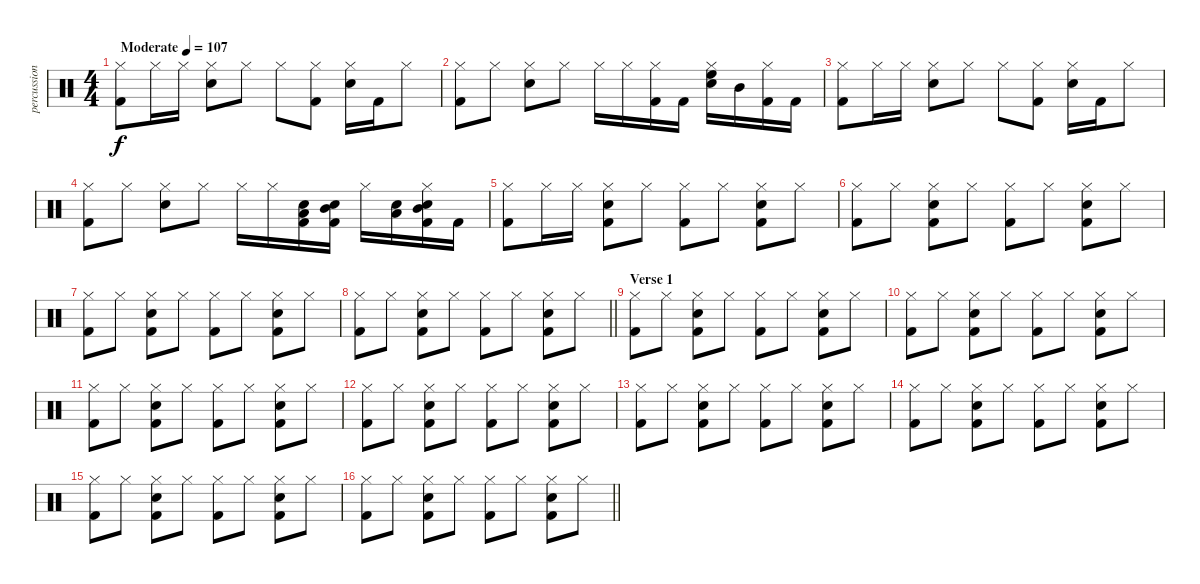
\track ("percussion" "percussion") {instrument percussion}
\staff {score}
\articulation defaults
\ts (4 4)
\tempo (107 "Moderate")
\clef neutral
\ks c
("Hi-Hat (closed)" "Kick (hit) 2").8{dy f} "Hi-Hat (closed)".16 "Hi-Hat (closed)".16 ("Snare (hit) 2" "Hi-Hat (closed)").8 "Hi-Hat (closed)".8 "Hi-Hat (closed)".8 ("Hi-Hat (closed)" "Kick (hit) 2").8 ("Snare (hit) 2" "Hi-Hat (closed)").16 "Kick (hit) 2".16 "Hi-Hat (closed)".8 |
("Hi-Hat (closed)" "Kick (hit) 2").8 "Hi-Hat (closed)".8 ("Snare (hit) 2" "Hi-Hat (closed)").8 "Hi-Hat (closed)".8 "Hi-Hat (closed)".16 "Hi-Hat (closed)".16 ("Hi-Hat (closed)" "Kick (hit) 2").16 "Kick (hit) 2".16 ("High Floor Tom (hit)" "Snare (hit) 2" "Hi-Hat (closed)").16 "Mid Tom (hit)".16 ("Hi-Hat (closed)" "Kick (hit) 2").16 "Kick (hit) 2".16 |
("Hi-Hat (closed)" "Kick (hit) 2").8 "Hi-Hat (closed)".16 "Hi-Hat (closed)".16 ("Snare (hit) 2" "Hi-Hat (closed)").8 "Hi-Hat (closed)".8 "Hi-Hat (closed)".8 ("Hi-Hat (closed)" "Kick (hit) 2").8 ("Snare (hit) 2" "Hi-Hat (closed)").16 "Kick (hit) 2".16 "Hi-Hat (closed)".8 |
("Hi-Hat (closed)" "Kick (hit) 2").8 "Hi-Hat (closed)".8 ("Snare (hit) 2" "Hi-Hat (closed)").8 "Hi-Hat (closed)".8 "Hi-Hat (closed)".16 "Hi-Hat (closed)".16 ("Low Tom (hit)" "Snare (hit) 2" "Kick (hit) 2").16 ("Mid Tom (hit)" "Snare (hit) 2" "Kick (hit) 2").16 "Hi-Hat (closed)".16 ("Low Tom (hit)" "Snare (hit) 2").16 ("Mid Tom (hit)" "Snare (hit) 2" "Hi-Hat (closed)" "Kick (hit) 2").16 "Kick (hit) 2".16 |
("Hi-Hat (closed)" "Kick (hit) 2").8 "Hi-Hat (closed)".16 "Hi-Hat (closed)".16 ("Snare (hit) 2" "Hi-Hat (closed)" "Kick (hit) 2").8 "Hi-Hat (closed)".8 ("Hi-Hat (closed)" "Kick (hit) 2").8 "Hi-Hat (closed)".8 ("Snare (hit) 2" "Hi-Hat (closed)" "Kick (hit) 2").8 "Hi-Hat (closed)".8 |
("Hi-Hat (closed)" "Kick (hit) 2").8 "Hi-Hat (closed)".8 ("Snare (hit) 2" "Hi-Hat (closed)" "Kick (hit) 2").8 "Hi-Hat (closed)".8 ("Hi-Hat (closed)" "Kick (hit) 2").8 "Hi-Hat (closed)".8 ("Snare (hit) 2" "Hi-Hat (closed)" "Kick (hit) 2").8 "Hi-Hat (closed)".8 |
("Hi-Hat (closed)" "Kick (hit) 2").8 "Hi-Hat (closed)".8 ("Snare (hit) 2" "Hi-Hat (closed)" "Kick (hit) 2").8 "Hi-Hat (closed)".8 ("Hi-Hat (closed)" "Kick (hit) 2").8 "Hi-Hat (closed)".8 ("Snare (hit) 2" "Hi-Hat (closed)" "Kick (hit) 2").8 "Hi-Hat (closed)".8 |
\barLineRight lightlight
("Hi-Hat (closed)" "Kick (hit) 2").8 "Hi-Hat (closed)".8 ("Snare (hit) 2" "Hi-Hat (closed)" "Kick (hit) 2").8 "Hi-Hat (closed)".8 ("Hi-Hat (closed)" "Kick (hit) 2").8 "Hi-Hat (closed)".8 ("Snare (hit) 2" "Hi-Hat (closed)" "Kick (hit) 2").8 "Hi-Hat (closed)".8 |
\section ("" "Verse 1")
("Hi-Hat (closed)" "Kick (hit) 2").8 "Hi-Hat (closed)".8 ("Snare (hit) 2" "Hi-Hat (closed)" "Kick (hit) 2").8 "Hi-Hat (closed)".8 ("Hi-Hat (closed)" "Kick (hit) 2").8 "Hi-Hat (closed)".8 ("Snare (hit) 2" "Hi-Hat (closed)" "Kick (hit) 2").8 "Hi-Hat (closed)".8 |
("Hi-Hat (closed)" "Kick (hit) 2").8 "Hi-Hat (closed)".8 ("Snare (hit) 2" "Hi-Hat (closed)" "Kick (hit) 2").8 "Hi-Hat (closed)".8 ("Hi-Hat (closed)" "Kick (hit) 2").8 "Hi-Hat (closed)".8 ("Snare (hit) 2" "Hi-Hat (closed)" "Kick (hit) 2").8 "Hi-Hat (closed)".8 |
("Hi-Hat (closed)" "Kick (hit) 2").8 "Hi-Hat (closed)".8 ("Snare (hit) 2" "Hi-Hat (closed)" "Kick (hit) 2").8 "Hi-Hat (closed)".8 ("Hi-Hat (closed)" "Kick (hit) 2").8 "Hi-Hat (closed)".8 ("Snare (hit) 2" "Hi-Hat (closed)" "Kick (hit) 2").8 "Hi-Hat (closed)".8 |
("Hi-Hat (closed)" "Kick (hit) 2").8 "Hi-Hat (closed)".8 ("Snare (hit) 2" "Hi-Hat (closed)" "Kick (hit) 2").8 "Hi-Hat (closed)".8 ("Hi-Hat (closed)" "Kick (hit) 2").8 "Hi-Hat (closed)".8 ("Snare (hit) 2" "Hi-Hat (closed)" "Kick (hit) 2").8 "Hi-Hat (closed)".8 |
("Hi-Hat (closed)" "Kick (hit) 2").8 "Hi-Hat (closed)".8 ("Snare (hit) 2" "Hi-Hat (closed)" "Kick (hit) 2").8 "Hi-Hat (closed)".8 ("Hi-Hat (closed)" "Kick (hit) 2").8 "Hi-Hat (closed)".8 ("Snare (hit) 2" "Hi-Hat (closed)" "Kick (hit) 2").8 "Hi-Hat (closed)".8 |
("Hi-Hat (closed)" "Kick (hit) 2").8 "Hi-Hat (closed)".8 ("Snare (hit) 2" "Hi-Hat (closed)" "Kick (hit) 2").8 "Hi-Hat (closed)".8 ("Hi-Hat (closed)" "Kick (hit) 2").8 "Hi-Hat (closed)".8 ("Snare (hit) 2" "Hi-Hat (closed)" "Kick (hit) 2").8 "Hi-Hat (closed)".8 |
("Hi-Hat (closed)" "Kick (hit) 2").8 "Hi-Hat (closed)".8 ("Snare (hit) 2" "Hi-Hat (closed)" "Kick (hit) 2").8 "Hi-Hat (closed)".8 ("Hi-Hat (closed)" "Kick (hit) 2").8 "Hi-Hat (closed)".8 ("Snare (hit) 2" "Hi-Hat (closed)" "Kick (hit) 2").8 "Hi-Hat (closed)".8 |
\barLineRight lightlight
("Hi-Hat (closed)" "Kick (hit) 2").8 "Hi-Hat (closed)".8 ("Snare (hit) 2" "Hi-Hat (closed)" "Kick (hit) 2").8 "Hi-Hat (closed)".8 ("Hi-Hat (closed)" "Kick (hit) 2").8 "Hi-Hat (closed)".8 ("Snare (hit) 2" "Hi-Hat (closed)" "Kick (hit) 2").8 "Hi-Hat (closed)".8
